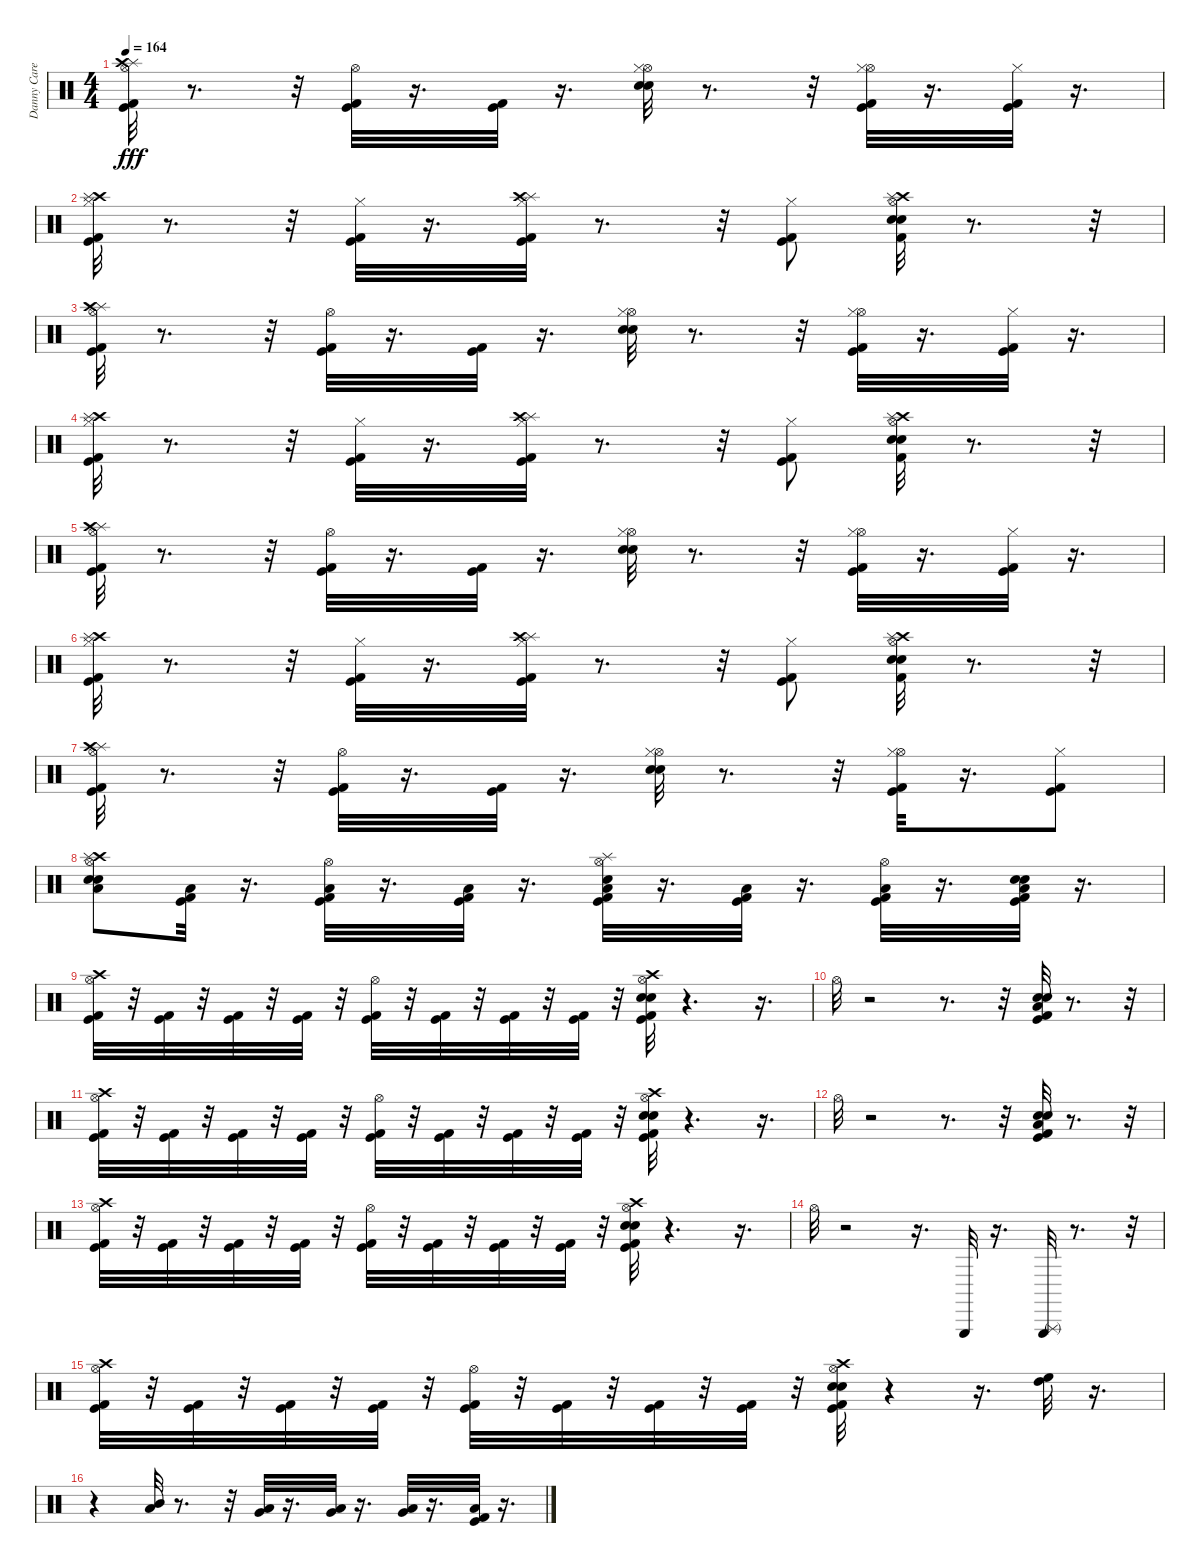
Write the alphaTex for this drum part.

\track ("Danny Carey" "Danny Care") {instrument percussion}
\staff {score}
\articulation defaults
\ts (4 4)
\tempo 164
\clef neutral
\ks c
("Splash (hit)" "Crash high (hit)" "Hi-Hat (open)" "Kick (hit)" "Kick (hit) 2").32{dy fff} r.8{d} r.32 ("Hi-Hat (open)" "Kick (hit)" "Kick (hit) 2").32 r.16{d} ("Kick (hit)" "Kick (hit) 2").32 r.16{d} ("Hi-Hat (open)" "Hi-Hat (closed)" "Electric Snare (hit)" "Snare (hit) 2").32 r.8{d} r.32 ("Hi-Hat (open)" "Hi-Hat (closed)" "Kick (hit)" "Kick (hit) 2").32 r.16{d} ("Hi-Hat (closed)" "Kick (hit) 2" "Kick (hit)").32 r.16{d} |
("Crash high (hit)" "Splash (hit)" "Hi-Hat (closed)" "Kick (hit)" "Kick (hit) 2").32 r.8{d} r.32 ("Hi-Hat (closed)" "Kick (hit)" "Kick (hit) 2").32 r.16{d} ("Splash (hit)" "Crash high (hit)" "Hi-Hat (closed)" "Kick (hit)" "Kick (hit) 2").32 r.8{d} r.32 ("Hi-Hat (closed)" "Kick (hit)" "Kick (hit) 2").8 ("Crash high (hit)" "Splash (hit)" "Hi-Hat (open)" "Electric Snare (hit)" "Snare (hit) 2" "Kick (hit) 2").32 r.8{d} r.32 |
("Splash (hit)" "Crash high (hit)" "Hi-Hat (open)" "Kick (hit)" "Kick (hit) 2").32 r.8{d} r.32 ("Hi-Hat (open)" "Kick (hit)" "Kick (hit) 2").32 r.16{d} ("Kick (hit)" "Kick (hit) 2").32 r.16{d} ("Hi-Hat (open)" "Hi-Hat (closed)" "Electric Snare (hit)" "Snare (hit) 2").32 r.8{d} r.32 ("Hi-Hat (open)" "Hi-Hat (closed)" "Kick (hit)" "Kick (hit) 2").32 r.16{d} ("Hi-Hat (closed)" "Kick (hit) 2" "Kick (hit)").32 r.16{d} |
("Crash high (hit)" "Splash (hit)" "Hi-Hat (closed)" "Kick (hit)" "Kick (hit) 2").32 r.8{d} r.32 ("Hi-Hat (closed)" "Kick (hit)" "Kick (hit) 2").32 r.16{d} ("Splash (hit)" "Crash high (hit)" "Hi-Hat (closed)" "Kick (hit)" "Kick (hit) 2").32 r.8{d} r.32 ("Hi-Hat (closed)" "Kick (hit)" "Kick (hit) 2").8 ("Crash high (hit)" "Splash (hit)" "Hi-Hat (open)" "Electric Snare (hit)" "Snare (hit) 2" "Kick (hit) 2").32 r.8{d} r.32 |
("Splash (hit)" "Crash high (hit)" "Hi-Hat (open)" "Kick (hit)" "Kick (hit) 2").32 r.8{d} r.32 ("Hi-Hat (open)" "Kick (hit)" "Kick (hit) 2").32 r.16{d} ("Kick (hit)" "Kick (hit) 2").32 r.16{d} ("Hi-Hat (open)" "Hi-Hat (closed)" "Electric Snare (hit)" "Snare (hit) 2").32 r.8{d} r.32 ("Hi-Hat (open)" "Hi-Hat (closed)" "Kick (hit)" "Kick (hit) 2").32 r.16{d} ("Hi-Hat (closed)" "Kick (hit) 2" "Kick (hit)").32 r.16{d} |
("Crash high (hit)" "Splash (hit)" "Hi-Hat (closed)" "Kick (hit)" "Kick (hit) 2").32 r.8{d} r.32 ("Hi-Hat (closed)" "Kick (hit)" "Kick (hit) 2").32 r.16{d} ("Splash (hit)" "Crash high (hit)" "Hi-Hat (closed)" "Kick (hit)" "Kick (hit) 2").32 r.8{d} r.32 ("Hi-Hat (closed)" "Kick (hit)" "Kick (hit) 2").8 ("Crash high (hit)" "Splash (hit)" "Hi-Hat (open)" "Electric Snare (hit)" "Snare (hit) 2" "Kick (hit) 2").32 r.8{d} r.32 |
("Splash (hit)" "Crash high (hit)" "Hi-Hat (open)" "Kick (hit)" "Kick (hit) 2").32 r.8{d} r.32 ("Hi-Hat (open)" "Kick (hit)" "Kick (hit) 2").32 r.16{d} ("Kick (hit)" "Kick (hit) 2").32 r.16{d} ("Hi-Hat (open)" "Hi-Hat (closed)" "Electric Snare (hit)" "Snare (hit) 2").32 r.8{d} r.32 ("Hi-Hat (open)" "Hi-Hat (closed)" "Kick (hit)" "Kick (hit) 2").32 r.16{d} ("Hi-Hat (closed)" "Kick (hit) 2" "Kick (hit)").8 |
("Low Floor Tom (hit)" "Hi-Hat (open)" "Snare (hit) 2" "Electric Snare (hit)" "Crash high (hit)" "Splash (hit)").8 ("Low Floor Tom (hit)" "Kick (hit)" "Kick (hit) 2").32 r.16{d} ("Low Floor Tom (hit)" "Hi-Hat (open)" "Kick (hit)" "Kick (hit) 2").32 r.16{d} ("Low Floor Tom (hit)" "Kick (hit)" "Kick (hit) 2").32 r.16{d} ("Low Floor Tom (hit)" "Hi-Hat (open)" "Splash (hit)" "Kick (hit)" "Kick (hit) 2" "Electric Snare (hit)").32 r.16{d} ("Low Floor Tom (hit)" "Kick (hit)" "Kick (hit) 2").32 r.16{d} ("Low Floor Tom (hit)" "Hi-Hat (open)" "Kick (hit) 2" "Kick (hit)").32 r.16{d} ("Low Floor Tom (hit)" "Kick (hit)" "Kick (hit) 2" "Electric Snare (hit)" "Snare (hit) 2").32 r.16{d} |
("Crash high (hit)" "Hi-Hat (open)" "Kick (hit)" "Kick (hit) 2").32 r.32 ("Kick (hit)" "Kick (hit) 2").32 r.32 ("Kick (hit) 2" "Kick (hit)").32 r.32 ("Kick (hit) 2" "Kick (hit)").32 r.32 ("Hi-Hat (open)" "Kick (hit)" "Kick (hit) 2").32 r.32 ("Kick (hit) 2" "Kick (hit)").32 r.32 ("Kick (hit) 2" "Kick (hit)").32 r.32 ("Kick (hit)" "Kick (hit) 2").32 r.32 ("Hi-Hat (open)" "Crash high (hit)" "Kick (hit)" "Kick (hit) 2" "Electric Snare (hit)" "Snare (hit) 2").32 r.4{d} r.16{d} |
"Hi-Hat (open)".32 r.2 r.8{d} r.32 ("Low Floor Tom (hit)" "Snare (hit) 2" "Electric Snare (hit)" "Kick (hit) 2" "Kick (hit)").32 r.8{d} r.32 |
("Crash high (hit)" "Hi-Hat (open)" "Kick (hit)" "Kick (hit) 2").32 r.32 ("Kick (hit)" "Kick (hit) 2").32 r.32 ("Kick (hit) 2" "Kick (hit)").32 r.32 ("Kick (hit) 2" "Kick (hit)").32 r.32 ("Hi-Hat (open)" "Kick (hit)" "Kick (hit) 2").32 r.32 ("Kick (hit) 2" "Kick (hit)").32 r.32 ("Kick (hit) 2" "Kick (hit)").32 r.32 ("Kick (hit)" "Kick (hit) 2").32 r.32 ("Hi-Hat (open)" "Crash high (hit)" "Kick (hit)" "Kick (hit) 2" "Electric Snare (hit)" "Snare (hit) 2").32 r.4{d} r.16{d} |
"Hi-Hat (open)".32 r.2 r.8{d} r.32 ("Low Floor Tom (hit)" "Kick (hit) 2" "Kick (hit)" "Snare (hit) 2" "Electric Snare (hit)").32 r.8{d} r.32 |
("Crash high (hit)" "Hi-Hat (open)" "Kick (hit)" "Kick (hit) 2").32 r.32 ("Kick (hit)" "Kick (hit) 2").32 r.32 ("Kick (hit) 2" "Kick (hit)").32 r.32 ("Kick (hit) 2" "Kick (hit)").32 r.32 ("Hi-Hat (open)" "Kick (hit)" "Kick (hit) 2").32 r.32 ("Kick (hit) 2" "Kick (hit)").32 r.32 ("Kick (hit) 2" "Kick (hit)").32 r.32 ("Kick (hit)" "Kick (hit) 2").32 r.32 ("Hi-Hat (open)" "Crash high (hit)" "Kick (hit)" "Kick (hit) 2" "Electric Snare (hit)" "Snare (hit) 2").32 r.4{d} r.16{d} |
"Hi-Hat (open)".32 r.2 r.16{d} "Triangle (hit)".32 r.16{d} ("Triangle (hit)" "Triangle (rnute)").32 r.8{d} r.32 |
("Crash high (hit)" "Hi-Hat (open)" "Kick (hit)" "Kick (hit) 2").32 r.32 ("Kick (hit)" "Kick (hit) 2").32 r.32 ("Kick (hit) 2" "Kick (hit)").32 r.32 ("Kick (hit) 2" "Kick (hit)").32 r.32 ("Hi-Hat (open)" "Kick (hit)" "Kick (hit) 2").32 r.32 ("Kick (hit) 2" "Kick (hit)").32 r.32 ("Kick (hit) 2" "Kick (hit)").32 r.32 ("Kick (hit)" "Kick (hit) 2").32 r.32 ("Hi-Hat (open)" "Crash high (hit)" "Kick (hit)" "Kick (hit) 2" "Electric Snare (hit)" "Snare (hit) 2").32 r.4 r.16{d} ("High Tom (hit)" "High Floor Tom (hit)").32 r.16{d} |
r.4 ("Mid Tom (hit)" "Low Tom (hit)").32 r.8{d} r.32 ("Low Floor Tom (hit)" "Very Low Tom (hit)").32 r.16{d} ("Very Low Tom (hit)" "Low Floor Tom (hit)").32 r.16{d} ("Low Floor Tom (hit)" "Very Low Tom (hit)").32 r.16{d} ("Low Floor Tom (hit)" "Kick (hit) 2" "Kick (hit)").32 r.16{d}
